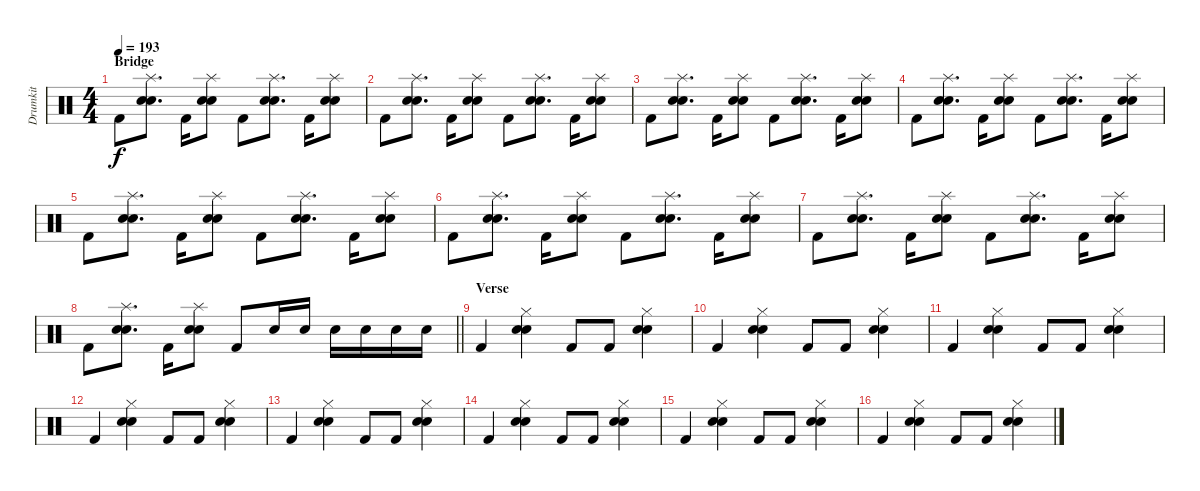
\track ("Drumkit" "Drumkit") {instrument percussion}
\staff {score}
\articulation defaults
\ts (4 4)
\section ("" "Bridge")
\tempo 193
\clef neutral
\ks c "Kick (hit) 2".8{dy f}
("Splash (hit)" "Electric Snare (hit)" "Snare (hit) 2").8{d} "Kick (hit) 2".16 ("Splash (hit)" "Electric Snare (hit)" "Snare (hit) 2").8 "Kick (hit) 2".8 ("Splash (hit)" "Electric Snare (hit)" "Snare (hit) 2").8{d} "Kick (hit) 2".16 ("Splash (hit)" "Electric Snare (hit)" "Snare (hit) 2").8 |
"Kick (hit) 2".8 ("Splash (hit)" "Electric Snare (hit)" "Snare (hit) 2").8{d} "Kick (hit) 2".16 ("Splash (hit)" "Electric Snare (hit)" "Snare (hit) 2").8 "Kick (hit) 2".8 ("Splash (hit)" "Electric Snare (hit)" "Snare (hit) 2").8{d} "Kick (hit) 2".16 ("Splash (hit)" "Electric Snare (hit)" "Snare (hit) 2").8 |
"Kick (hit) 2".8 ("Splash (hit)" "Electric Snare (hit)" "Snare (hit) 2").8{d} "Kick (hit) 2".16 ("Splash (hit)" "Electric Snare (hit)" "Snare (hit) 2").8 "Kick (hit) 2".8 ("Splash (hit)" "Electric Snare (hit)" "Snare (hit) 2").8{d} "Kick (hit) 2".16 ("Splash (hit)" "Electric Snare (hit)" "Snare (hit) 2").8 |
"Kick (hit) 2".8 ("Splash (hit)" "Electric Snare (hit)" "Snare (hit) 2").8{d} "Kick (hit) 2".16 ("Splash (hit)" "Electric Snare (hit)" "Snare (hit) 2").8 "Kick (hit) 2".8 ("Splash (hit)" "Electric Snare (hit)" "Snare (hit) 2").8{d} "Kick (hit) 2".16 ("Splash (hit)" "Electric Snare (hit)" "Snare (hit) 2").8 |
"Kick (hit) 2".8 ("Splash (hit)" "Electric Snare (hit)" "Snare (hit) 2").8{d} "Kick (hit) 2".16 ("Splash (hit)" "Electric Snare (hit)" "Snare (hit) 2").8 "Kick (hit) 2".8 ("Splash (hit)" "Electric Snare (hit)" "Snare (hit) 2").8{d} "Kick (hit) 2".16 ("Splash (hit)" "Electric Snare (hit)" "Snare (hit) 2").8 |
"Kick (hit) 2".8 ("Splash (hit)" "Electric Snare (hit)" "Snare (hit) 2").8{d} "Kick (hit) 2".16 ("Splash (hit)" "Electric Snare (hit)" "Snare (hit) 2").8 "Kick (hit) 2".8 ("Splash (hit)" "Electric Snare (hit)" "Snare (hit) 2").8{d} "Kick (hit) 2".16 ("Splash (hit)" "Electric Snare (hit)" "Snare (hit) 2").8 |
"Kick (hit) 2".8 ("Splash (hit)" "Electric Snare (hit)" "Snare (hit) 2").8{d} "Kick (hit) 2".16 ("Splash (hit)" "Electric Snare (hit)" "Snare (hit) 2").8 "Kick (hit) 2".8 ("Splash (hit)" "Electric Snare (hit)" "Snare (hit) 2").8{d} "Kick (hit) 2".16 ("Splash (hit)" "Electric Snare (hit)" "Snare (hit) 2").8 |
\barLineRight lightlight "Kick (hit) 2".8
("Splash (hit)" "Electric Snare (hit)" "Snare (hit) 2").8{d} "Kick (hit) 2".16 ("Splash (hit)" "Electric Snare (hit)" "Snare (hit) 2").8 "Kick (hit) 2".8 "Electric Snare (hit)".16 "Electric Snare (hit)".16 "Electric Snare (hit)".16 "Electric Snare (hit)".16 "Electric Snare (hit)".16 "Electric Snare (hit)".16 |
\section ("" "Verse")
"Kick (hit) 2".4 ("Hi-Hat (closed)" "Electric Snare (hit)" "Snare (hit) 2").4 "Kick (hit) 2".8 "Kick (hit) 2".8 ("Hi-Hat (closed)" "Electric Snare (hit)" "Snare (hit) 2").4 |
"Kick (hit) 2".4 ("Hi-Hat (closed)" "Electric Snare (hit)" "Snare (hit) 2").4 "Kick (hit) 2".8 "Kick (hit) 2".8 ("Hi-Hat (closed)" "Electric Snare (hit)" "Snare (hit) 2").4 |
"Kick (hit) 2".4 ("Hi-Hat (closed)" "Electric Snare (hit)" "Snare (hit) 2").4 "Kick (hit) 2".8 "Kick (hit) 2".8 ("Hi-Hat (closed)" "Electric Snare (hit)" "Snare (hit) 2").4 |
"Kick (hit) 2".4 ("Hi-Hat (closed)" "Electric Snare (hit)" "Snare (hit) 2").4 "Kick (hit) 2".8 "Kick (hit) 2".8 ("Hi-Hat (closed)" "Electric Snare (hit)" "Snare (hit) 2").4 |
"Kick (hit) 2".4 ("Hi-Hat (closed)" "Electric Snare (hit)" "Snare (hit) 2").4 "Kick (hit) 2".8 "Kick (hit) 2".8 ("Hi-Hat (closed)" "Electric Snare (hit)" "Snare (hit) 2").4 |
"Kick (hit) 2".4 ("Hi-Hat (closed)" "Electric Snare (hit)" "Snare (hit) 2").4 "Kick (hit) 2".8 "Kick (hit) 2".8 ("Hi-Hat (closed)" "Electric Snare (hit)" "Snare (hit) 2").4 |
"Kick (hit) 2".4 ("Hi-Hat (closed)" "Electric Snare (hit)" "Snare (hit) 2").4 "Kick (hit) 2".8 "Kick (hit) 2".8 ("Hi-Hat (closed)" "Electric Snare (hit)" "Snare (hit) 2").4 |
"Kick (hit) 2".4 ("Hi-Hat (closed)" "Electric Snare (hit)" "Snare (hit) 2").4 "Kick (hit) 2".8 "Kick (hit) 2".8 ("Hi-Hat (closed)" "Electric Snare (hit)" "Snare (hit) 2").4
